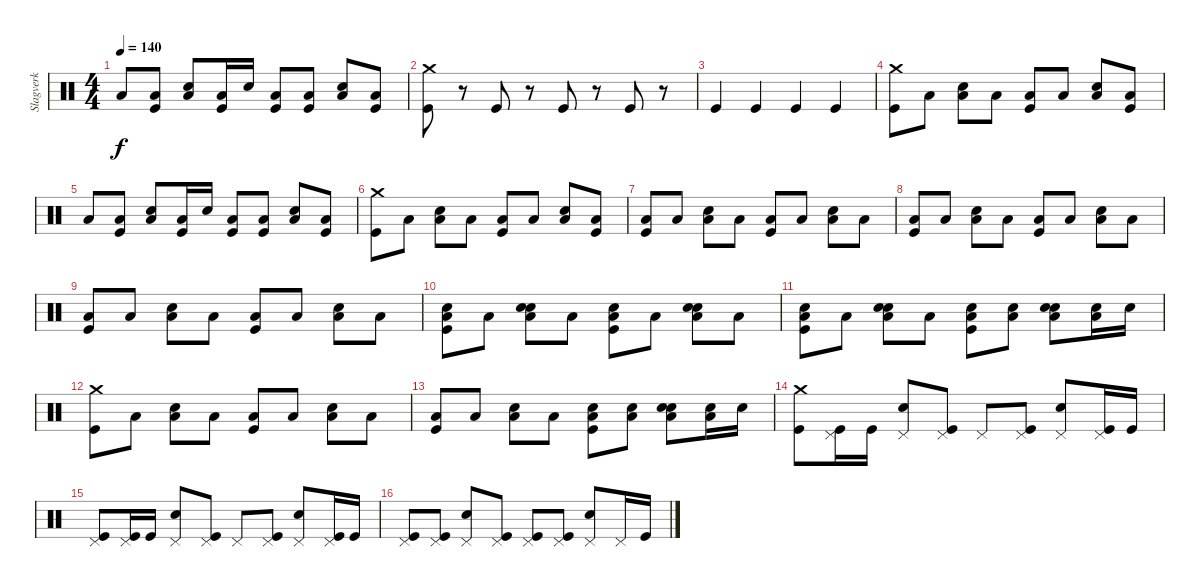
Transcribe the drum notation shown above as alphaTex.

\track ("Slagverk" "Slagverk") {instrument percussion}
\staff {score}
\articulation defaults
\ts (4 4)
\tempo 140
\clef neutral
\ks c "Low Floor Tom (hit)".8{dy f}
("Low Floor Tom (hit)" "Kick (hit)").8 ("Low Floor Tom (hit)" "Snare (hit) 2").8 ("Low Floor Tom (hit)" "Kick (hit)").16 "Snare (hit) 2".16 ("Low Floor Tom (hit)" "Kick (hit)").8 ("Low Floor Tom (hit)" "Kick (hit)").8 ("Low Floor Tom (hit)" "Snare (hit) 2").8 ("Low Floor Tom (hit)" "Kick (hit)").8 |
("Crash medium (hit)" "Kick (hit)").8 r.8 "Kick (hit)".8 r.8 "Kick (hit)".8 r.8 "Kick (hit)".8 r.8 |
"Kick (hit)".4 "Kick (hit)".4 "Kick (hit)".4 "Kick (hit)".4 |
("Crash medium (hit)" "Kick (hit)").8 "Low Floor Tom (hit)".8 ("Low Floor Tom (hit)" "Snare (hit) 2").8 "Low Floor Tom (hit)".8 ("Low Floor Tom (hit)" "Kick (hit)").8 "Low Floor Tom (hit)".8 ("Low Floor Tom (hit)" "Snare (hit) 2").8 ("Low Floor Tom (hit)" "Kick (hit)").8 |
"Low Floor Tom (hit)".8 ("Low Floor Tom (hit)" "Kick (hit)").8 ("Low Floor Tom (hit)" "Snare (hit) 2").8 ("Low Floor Tom (hit)" "Kick (hit)").16 "Snare (hit) 2".16 ("Low Floor Tom (hit)" "Kick (hit)").8 ("Low Floor Tom (hit)" "Kick (hit)").8 ("Low Floor Tom (hit)" "Snare (hit) 2").8 ("Low Floor Tom (hit)" "Kick (hit)").8 |
("Crash medium (hit)" "Kick (hit)").8 "Low Floor Tom (hit)".8 ("Low Floor Tom (hit)" "Snare (hit) 2").8 "Low Floor Tom (hit)".8 ("Low Floor Tom (hit)" "Kick (hit)").8 "Low Floor Tom (hit)".8 ("Low Floor Tom (hit)" "Snare (hit) 2").8 ("Low Floor Tom (hit)" "Kick (hit)").8 |
("Low Floor Tom (hit)" "Kick (hit)").8 "Low Floor Tom (hit)".8 ("Low Floor Tom (hit)" "Snare (hit) 2").8 "Low Floor Tom (hit)".8 ("Low Floor Tom (hit)" "Kick (hit)").8 "Low Floor Tom (hit)".8 ("Low Floor Tom (hit)" "Snare (hit) 2").8 "Low Floor Tom (hit)".8 |
("Low Floor Tom (hit)" "Kick (hit)").8 "Low Floor Tom (hit)".8 ("Low Floor Tom (hit)" "Snare (hit) 2").8 "Low Floor Tom (hit)".8 ("Low Floor Tom (hit)" "Kick (hit)").8 "Low Floor Tom (hit)".8 ("Low Floor Tom (hit)" "Snare (hit) 2").8 "Low Floor Tom (hit)".8 |
("Low Floor Tom (hit)" "Kick (hit)").8 "Low Floor Tom (hit)".8 ("Low Floor Tom (hit)" "Snare (hit) 2").8 "Low Floor Tom (hit)".8 ("Low Floor Tom (hit)" "Kick (hit)").8 "Low Floor Tom (hit)".8 ("Low Floor Tom (hit)" "Snare (hit) 2").8 "Low Floor Tom (hit)".8 |
("Low Floor Tom (hit)" "Electric Snare (hit)" "Kick (hit)").8 "Low Floor Tom (hit)".8 ("Low Floor Tom (hit)" "Snare (hit) 2" "Electric Snare (hit)").8 "Low Floor Tom (hit)".8 ("Low Floor Tom (hit)" "Electric Snare (hit)" "Kick (hit)").8 "Low Floor Tom (hit)".8 ("Low Floor Tom (hit)" "Snare (hit) 2" "Electric Snare (hit)").8 "Low Floor Tom (hit)".8 |
("Low Floor Tom (hit)" "Electric Snare (hit)" "Kick (hit)").8 "Low Floor Tom (hit)".8 ("Low Floor Tom (hit)" "Snare (hit) 2" "Electric Snare (hit)").8 "Low Floor Tom (hit)".8 ("Low Floor Tom (hit)" "Electric Snare (hit)" "Kick (hit)").8 ("Low Floor Tom (hit)" "Electric Snare (hit)").8 ("Low Floor Tom (hit)" "Snare (hit) 2" "Electric Snare (hit)").8 ("Low Floor Tom (hit)" "Electric Snare (hit)").16 "Electric Snare (hit)".16 |
("Crash medium (hit)" "Kick (hit)").8 "Low Floor Tom (hit)".8 ("Low Floor Tom (hit)" "Snare (hit) 2").8 "Low Floor Tom (hit)".8 ("Low Floor Tom (hit)" "Kick (hit)").8 "Low Floor Tom (hit)".8 ("Low Floor Tom (hit)" "Snare (hit) 2").8 "Low Floor Tom (hit)".8 |
("Low Floor Tom (hit)" "Kick (hit)").8 "Low Floor Tom (hit)".8 ("Low Floor Tom (hit)" "Snare (hit) 2").8 "Low Floor Tom (hit)".8 ("Low Floor Tom (hit)" "Electric Snare (hit)" "Kick (hit)").8 ("Low Floor Tom (hit)" "Electric Snare (hit)").8 ("Low Floor Tom (hit)" "Snare (hit) 2" "Electric Snare (hit)").8 ("Low Floor Tom (hit)" "Electric Snare (hit)").16 "Electric Snare (hit)".16 |
("Crash medium (hit)" "Kick (hit)").8 ("Pedal Hi-Hat (hit)" "Kick (hit)").16 "Kick (hit)".16 ("Pedal Hi-Hat (hit)" "Snare (hit) 2").8 ("Pedal Hi-Hat (hit)" "Kick (hit)").8 "Pedal Hi-Hat (hit)".8 ("Pedal Hi-Hat (hit)" "Kick (hit)").8 ("Pedal Hi-Hat (hit)" "Snare (hit) 2").8 ("Pedal Hi-Hat (hit)" "Kick (hit)").16 "Kick (hit)".16 |
("Pedal Hi-Hat (hit)" "Kick (hit)").8 ("Pedal Hi-Hat (hit)" "Kick (hit)").16 "Kick (hit)".16 ("Pedal Hi-Hat (hit)" "Snare (hit) 2").8 ("Pedal Hi-Hat (hit)" "Kick (hit)").8 "Pedal Hi-Hat (hit)".8 ("Pedal Hi-Hat (hit)" "Kick (hit)").8 ("Pedal Hi-Hat (hit)" "Snare (hit) 2").8 ("Pedal Hi-Hat (hit)" "Kick (hit)").16 "Kick (hit)".16 |
("Pedal Hi-Hat (hit)" "Kick (hit)").8 ("Pedal Hi-Hat (hit)" "Kick (hit)").8 ("Pedal Hi-Hat (hit)" "Snare (hit) 2").8 ("Pedal Hi-Hat (hit)" "Kick (hit)").8 ("Pedal Hi-Hat (hit)" "Kick (hit)").8 ("Pedal Hi-Hat (hit)" "Kick (hit)").8 ("Pedal Hi-Hat (hit)" "Snare (hit) 2").8 "Pedal Hi-Hat (hit)".16 "Kick (hit)".16
